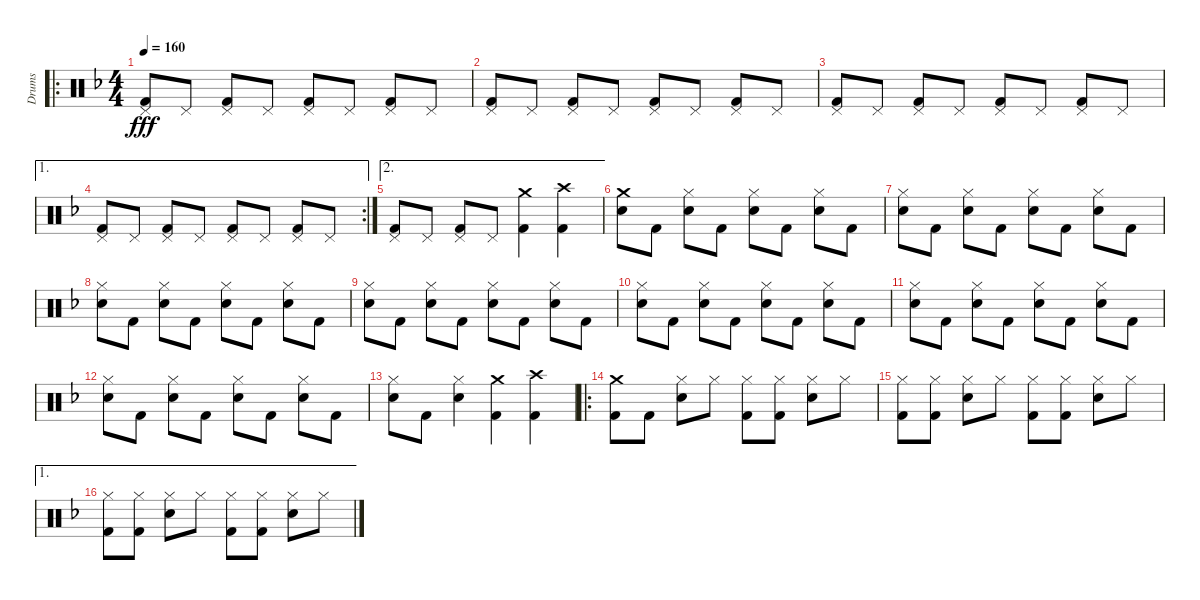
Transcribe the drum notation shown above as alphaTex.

\track ("Drums" "Drums") {instrument percussion}
\staff {score}
\articulation defaults
\ro
\ts (4 4)
\tempo 160
\clef neutral
\ks f
("Pedal Hi-Hat (hit)" "Kick (hit) 2").8{dy fff} "Pedal Hi-Hat (hit)".8 ("Pedal Hi-Hat (hit)" "Kick (hit) 2").8 "Pedal Hi-Hat (hit)".8 ("Pedal Hi-Hat (hit)" "Kick (hit) 2").8 "Pedal Hi-Hat (hit)".8 ("Pedal Hi-Hat (hit)" "Kick (hit) 2").8 "Pedal Hi-Hat (hit)".8 |
("Pedal Hi-Hat (hit)" "Kick (hit) 2").8 "Pedal Hi-Hat (hit)".8 ("Pedal Hi-Hat (hit)" "Kick (hit) 2").8 "Pedal Hi-Hat (hit)".8 ("Pedal Hi-Hat (hit)" "Kick (hit) 2").8 "Pedal Hi-Hat (hit)".8 ("Pedal Hi-Hat (hit)" "Kick (hit) 2").8 "Pedal Hi-Hat (hit)".8 |
("Pedal Hi-Hat (hit)" "Kick (hit) 2").8 "Pedal Hi-Hat (hit)".8 ("Pedal Hi-Hat (hit)" "Kick (hit) 2").8 "Pedal Hi-Hat (hit)".8 ("Pedal Hi-Hat (hit)" "Kick (hit) 2").8 "Pedal Hi-Hat (hit)".8 ("Pedal Hi-Hat (hit)" "Kick (hit) 2").8 "Pedal Hi-Hat (hit)".8 |
\ae 1
\rc 2
("Pedal Hi-Hat (hit)" "Kick (hit) 2").8 "Pedal Hi-Hat (hit)".8 ("Pedal Hi-Hat (hit)" "Kick (hit) 2").8 "Pedal Hi-Hat (hit)".8 ("Pedal Hi-Hat (hit)" "Kick (hit) 2").8 "Pedal Hi-Hat (hit)".8 ("Pedal Hi-Hat (hit)" "Kick (hit) 2").8 "Pedal Hi-Hat (hit)".8 |
\ae 2
("Pedal Hi-Hat (hit)" "Kick (hit) 2").8 "Pedal Hi-Hat (hit)".8 ("Pedal Hi-Hat (hit)" "Kick (hit) 2").8 "Pedal Hi-Hat (hit)".8 ("Crash medium (hit)" "Kick (hit) 2").4 ("Crash high (hit)" "Kick (hit) 2").4 |
("Crash medium (hit)" "Electric Snare (hit)").8 "Kick (hit) 2".8 ("Hi-Hat (closed)" "Electric Snare (hit)").8 "Kick (hit) 2".8 ("Hi-Hat (closed)" "Electric Snare (hit)").8 "Kick (hit) 2".8 ("Hi-Hat (closed)" "Electric Snare (hit)").8 "Kick (hit) 2".8 |
("Hi-Hat (closed)" "Electric Snare (hit)").8 "Kick (hit) 2".8 ("Hi-Hat (closed)" "Electric Snare (hit)").8 "Kick (hit) 2".8 ("Hi-Hat (closed)" "Electric Snare (hit)").8 "Kick (hit) 2".8 ("Hi-Hat (closed)" "Electric Snare (hit)").8 "Kick (hit) 2".8 |
("Hi-Hat (closed)" "Electric Snare (hit)").8 "Kick (hit) 2".8 ("Hi-Hat (closed)" "Electric Snare (hit)").8 "Kick (hit) 2".8 ("Hi-Hat (closed)" "Electric Snare (hit)").8 "Kick (hit) 2".8 ("Hi-Hat (closed)" "Electric Snare (hit)").8 "Kick (hit) 2".8 |
("Hi-Hat (closed)" "Electric Snare (hit)").8 "Kick (hit) 2".8 ("Hi-Hat (closed)" "Electric Snare (hit)").8 "Kick (hit) 2".8 ("Hi-Hat (closed)" "Electric Snare (hit)").8 "Kick (hit) 2".8 ("Hi-Hat (closed)" "Electric Snare (hit)").8 "Kick (hit) 2".8 |
("Hi-Hat (closed)" "Electric Snare (hit)").8 "Kick (hit) 2".8 ("Hi-Hat (closed)" "Electric Snare (hit)").8 "Kick (hit) 2".8 ("Hi-Hat (closed)" "Electric Snare (hit)").8 "Kick (hit) 2".8 ("Hi-Hat (closed)" "Electric Snare (hit)").8 "Kick (hit) 2".8 |
("Hi-Hat (closed)" "Electric Snare (hit)").8 "Kick (hit) 2".8 ("Hi-Hat (closed)" "Electric Snare (hit)").8 "Kick (hit) 2".8 ("Hi-Hat (closed)" "Electric Snare (hit)").8 "Kick (hit) 2".8 ("Hi-Hat (closed)" "Electric Snare (hit)").8 "Kick (hit) 2".8 |
("Hi-Hat (closed)" "Electric Snare (hit)").8 "Kick (hit) 2".8 ("Hi-Hat (closed)" "Electric Snare (hit)").8 "Kick (hit) 2".8 ("Hi-Hat (closed)" "Electric Snare (hit)").8 "Kick (hit) 2".8 ("Hi-Hat (closed)" "Electric Snare (hit)").8 "Kick (hit) 2".8 |
("Hi-Hat (closed)" "Electric Snare (hit)").8 "Kick (hit) 2".8 ("Hi-Hat (closed)" "Electric Snare (hit)").4 ("Crash medium (hit)" "Kick (hit) 2").4 ("Crash high (hit)" "Kick (hit) 2").4 |
\ro
("Crash medium (hit)" "Kick (hit) 2").8 "Kick (hit) 2".8 ("Hi-Hat (closed)" "Electric Snare (hit)").8 "Hi-Hat (closed)".8 ("Hi-Hat (closed)" "Kick (hit) 2").8 ("Hi-Hat (closed)" "Kick (hit) 2").8 ("Hi-Hat (closed)" "Electric Snare (hit)").8 "Hi-Hat (closed)".8 |
("Hi-Hat (closed)" "Kick (hit) 2").8 ("Hi-Hat (closed)" "Kick (hit) 2").8 ("Hi-Hat (closed)" "Electric Snare (hit)").8 "Hi-Hat (closed)".8 ("Hi-Hat (closed)" "Kick (hit) 2").8 ("Hi-Hat (closed)" "Kick (hit) 2").8 ("Hi-Hat (closed)" "Electric Snare (hit)").8 "Hi-Hat (closed)".8 |
\ae 1
("Hi-Hat (closed)" "Kick (hit) 2").8 ("Hi-Hat (closed)" "Kick (hit) 2").8 ("Hi-Hat (closed)" "Electric Snare (hit)").8 "Hi-Hat (closed)".8 ("Hi-Hat (closed)" "Kick (hit) 2").8 ("Hi-Hat (closed)" "Kick (hit) 2").8 ("Hi-Hat (closed)" "Electric Snare (hit)").8 "Hi-Hat (closed)".8
